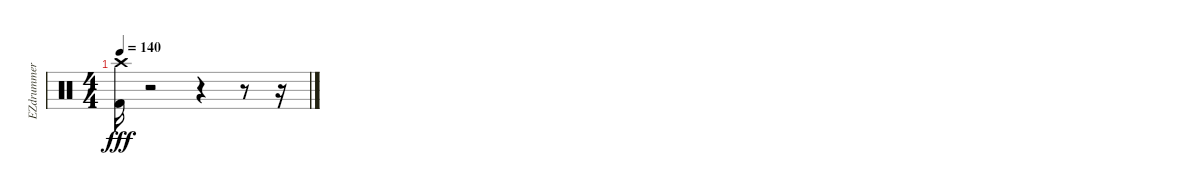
\track ("EZdrummer" "EZdrummer") {instrument percussion}
\staff {score}
\articulation defaults
\ts (4 4)
\tempo 140
\clef neutral
\ks c
("Kick (hit) 2" "Crash high (hit)").16{dy fff} r.2 r.4 r.8 r.16
